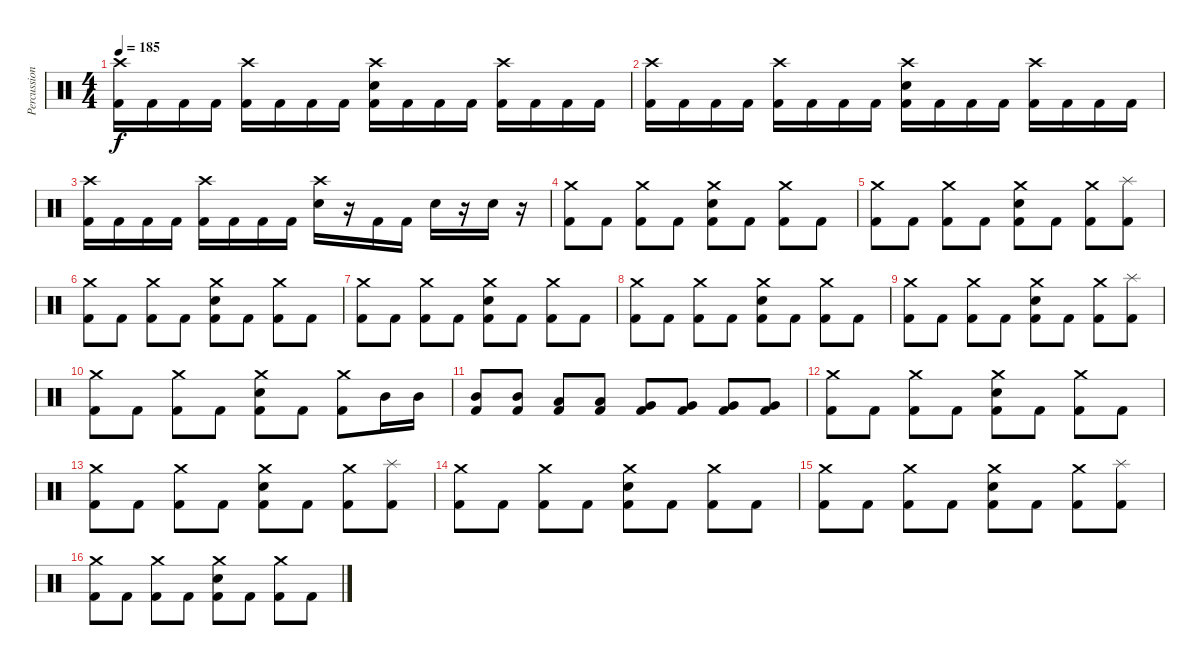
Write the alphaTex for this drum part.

\track ("Percussion" "Percussion") {instrument percussion}
\staff {score}
\articulation defaults
\ts (4 4)
\tempo 185
\clef neutral
\ks c
("Crash high (hit)" "Kick (hit) 2").16{dy f} "Kick (hit) 2".16 "Kick (hit) 2".16 "Kick (hit) 2".16 ("Crash high (hit)" "Kick (hit) 2").16 "Kick (hit) 2".16 "Kick (hit) 2".16 "Kick (hit) 2".16 ("Crash high (hit)" "Snare (hit) 2" "Kick (hit) 2").16 "Kick (hit) 2".16 "Kick (hit) 2".16 "Kick (hit) 2".16 ("Crash high (hit)" "Kick (hit) 2").16 "Kick (hit) 2".16 "Kick (hit) 2".16 "Kick (hit) 2".16 |
("Crash high (hit)" "Kick (hit) 2").16 "Kick (hit) 2".16 "Kick (hit) 2".16 "Kick (hit) 2".16 ("Crash high (hit)" "Kick (hit) 2").16 "Kick (hit) 2".16 "Kick (hit) 2".16 "Kick (hit) 2".16 ("Crash high (hit)" "Snare (hit) 2" "Kick (hit) 2").16 "Kick (hit) 2".16 "Kick (hit) 2".16 "Kick (hit) 2".16 ("Crash high (hit)" "Kick (hit) 2").16 "Kick (hit) 2".16 "Kick (hit) 2".16 "Kick (hit) 2".16 |
("Crash high (hit)" "Kick (hit) 2").16 "Kick (hit) 2".16 "Kick (hit) 2".16 "Kick (hit) 2".16 ("Crash high (hit)" "Kick (hit) 2").16 "Kick (hit) 2".16 "Kick (hit) 2".16 "Kick (hit) 2".16 ("Crash high (hit)" "Snare (hit) 2").16 r.16 "Kick (hit) 2".16 "Kick (hit) 2".16 "Snare (hit) 2".16 r.16 "Snare (hit) 2".16 r.16 |
("Crash medium (hit)" "Kick (hit) 2").8 "Kick (hit) 2".8 ("Crash medium (hit)" "Kick (hit) 2").8 "Kick (hit) 2".8 ("Crash medium (hit)" "Snare (hit) 2" "Kick (hit) 2").8 "Kick (hit) 2".8 ("Crash medium (hit)" "Kick (hit) 2").8 "Kick (hit) 2".8 |
("Crash medium (hit)" "Kick (hit) 2").8 "Kick (hit) 2".8 ("Crash medium (hit)" "Kick (hit) 2").8 "Kick (hit) 2".8 ("Crash medium (hit)" "Snare (hit) 2" "Kick (hit) 2").8 "Kick (hit) 2".8 ("Crash medium (hit)" "Kick (hit) 2").8 ("Splash (hit)" "Kick (hit) 2").8 |
("Crash medium (hit)" "Kick (hit) 2").8 "Kick (hit) 2".8 ("Crash medium (hit)" "Kick (hit) 2").8 "Kick (hit) 2".8 ("Crash medium (hit)" "Snare (hit) 2" "Kick (hit) 2").8 "Kick (hit) 2".8 ("Crash medium (hit)" "Kick (hit) 2").8 "Kick (hit) 2".8 |
("Crash medium (hit)" "Kick (hit) 2").8 "Kick (hit) 2".8 ("Crash medium (hit)" "Kick (hit) 2").8 "Kick (hit) 2".8 ("Crash medium (hit)" "Snare (hit) 2" "Kick (hit) 2").8 "Kick (hit) 2".8 ("Crash medium (hit)" "Kick (hit) 2").8 "Kick (hit) 2".8 |
("Crash medium (hit)" "Kick (hit) 2").8 "Kick (hit) 2".8 ("Crash medium (hit)" "Kick (hit) 2").8 "Kick (hit) 2".8 ("Crash medium (hit)" "Snare (hit) 2" "Kick (hit) 2").8 "Kick (hit) 2".8 ("Crash medium (hit)" "Kick (hit) 2").8 "Kick (hit) 2".8 |
("Crash medium (hit)" "Kick (hit) 2").8 "Kick (hit) 2".8 ("Crash medium (hit)" "Kick (hit) 2").8 "Kick (hit) 2".8 ("Crash medium (hit)" "Snare (hit) 2" "Kick (hit) 2").8 "Kick (hit) 2".8 ("Crash medium (hit)" "Kick (hit) 2").8 ("Splash (hit)" "Kick (hit) 2").8 |
("Crash medium (hit)" "Kick (hit) 2").8 "Kick (hit) 2".8 ("Crash medium (hit)" "Kick (hit) 2").8 "Kick (hit) 2".8 ("Crash medium (hit)" "Snare (hit) 2" "Kick (hit) 2").8 "Kick (hit) 2".8 ("Crash medium (hit)" "Kick (hit) 2").8 "Mid Tom (hit)".16 "Mid Tom (hit)".16 |
("Mid Tom (hit)" "Kick (hit) 2").8 ("Mid Tom (hit)" "Kick (hit) 2").8 ("Low Tom (hit)" "Kick (hit) 2").8 ("Low Tom (hit)" "Kick (hit) 2").8 ("Very Low Tom (hit)" "Kick (hit) 2").8 ("Very Low Tom (hit)" "Kick (hit) 2").8 ("Very Low Tom (hit)" "Kick (hit) 2").8 ("Very Low Tom (hit)" "Kick (hit) 2").8 |
("Crash medium (hit)" "Kick (hit) 2").8 "Kick (hit) 2".8 ("Crash medium (hit)" "Kick (hit) 2").8 "Kick (hit) 2".8 ("Crash medium (hit)" "Snare (hit) 2" "Kick (hit) 2").8 "Kick (hit) 2".8 ("Crash medium (hit)" "Kick (hit) 2").8 "Kick (hit) 2".8 |
("Crash medium (hit)" "Kick (hit) 2").8 "Kick (hit) 2".8 ("Crash medium (hit)" "Kick (hit) 2").8 "Kick (hit) 2".8 ("Crash medium (hit)" "Snare (hit) 2" "Kick (hit) 2").8 "Kick (hit) 2".8 ("Crash medium (hit)" "Kick (hit) 2").8 ("Splash (hit)" "Kick (hit) 2").8 |
("Crash medium (hit)" "Kick (hit) 2").8 "Kick (hit) 2".8 ("Crash medium (hit)" "Kick (hit) 2").8 "Kick (hit) 2".8 ("Crash medium (hit)" "Snare (hit) 2" "Kick (hit) 2").8 "Kick (hit) 2".8 ("Crash medium (hit)" "Kick (hit) 2").8 "Kick (hit) 2".8 |
("Crash medium (hit)" "Kick (hit) 2").8 "Kick (hit) 2".8 ("Crash medium (hit)" "Kick (hit) 2").8 "Kick (hit) 2".8 ("Crash medium (hit)" "Snare (hit) 2" "Kick (hit) 2").8 "Kick (hit) 2".8 ("Crash medium (hit)" "Kick (hit) 2").8 ("Splash (hit)" "Kick (hit) 2").8 |
("Crash medium (hit)" "Kick (hit) 2").8 "Kick (hit) 2".8 ("Crash medium (hit)" "Kick (hit) 2").8 "Kick (hit) 2".8 ("Crash medium (hit)" "Snare (hit) 2" "Kick (hit) 2").8 "Kick (hit) 2".8 ("Crash medium (hit)" "Kick (hit) 2").8 "Kick (hit) 2".8
